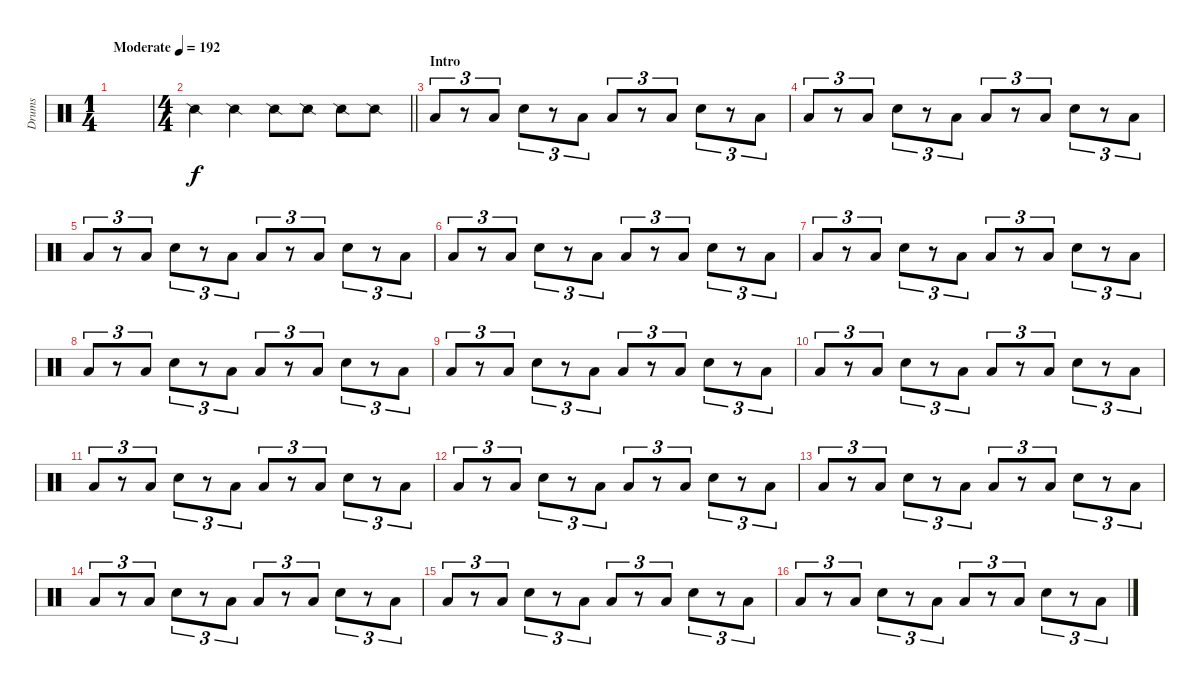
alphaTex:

\track ("Drums" "Drums") {instrument percussion}
\staff {score}
\articulation defaults
\ts (1 4)
\tempo (192 "Moderate")
\clef neutral
\ks c
|
\ts (4 4)
\barLineRight lightlight "Snare (side stick) 2".4 "Snare (side stick) 2".4 "Snare (side stick) 2".8 "Snare (side stick) 2".8 "Snare (side stick) 2".8 "Snare (side stick) 2".8
|
\section ("" "Intro")
"Low Floor Tom (hit)".8{tu (3 2)} r.8{tu (3 2)} "Low Tom (hit)".8{tu (3 2)} "Snare (hit) 2".8{tu (3 2)} r.8{tu (3 2)} "Low Tom (hit)".8{tu (3 2)} "Low Floor Tom (hit)".8{tu (3 2)} r.8{tu (3 2)} "Low Tom (hit)".8{tu (3 2)} "Snare (hit) 2".8{tu (3 2)} r.8{tu (3 2)} "Low Tom (hit)".8{tu (3 2)} |
"Low Floor Tom (hit)".8{tu (3 2)} r.8{tu (3 2)} "Low Tom (hit)".8{tu (3 2)} "Snare (hit) 2".8{tu (3 2)} r.8{tu (3 2)} "Low Tom (hit)".8{tu (3 2)} "Low Floor Tom (hit)".8{tu (3 2)} r.8{tu (3 2)} "Low Tom (hit)".8{tu (3 2)} "Snare (hit) 2".8{tu (3 2)} r.8{tu (3 2)} "Low Tom (hit)".8{tu (3 2)} |
"Low Floor Tom (hit)".8{tu (3 2)} r.8{tu (3 2)} "Low Tom (hit)".8{tu (3 2)} "Snare (hit) 2".8{tu (3 2)} r.8{tu (3 2)} "Low Tom (hit)".8{tu (3 2)} "Low Floor Tom (hit)".8{tu (3 2)} r.8{tu (3 2)} "Low Tom (hit)".8{tu (3 2)} "Snare (hit) 2".8{tu (3 2)} r.8{tu (3 2)} "Low Tom (hit)".8{tu (3 2)} |
"Low Floor Tom (hit)".8{tu (3 2)} r.8{tu (3 2)} "Low Tom (hit)".8{tu (3 2)} "Snare (hit) 2".8{tu (3 2)} r.8{tu (3 2)} "Low Tom (hit)".8{tu (3 2)} "Low Floor Tom (hit)".8{tu (3 2)} r.8{tu (3 2)} "Low Tom (hit)".8{tu (3 2)} "Snare (hit) 2".8{tu (3 2)} r.8{tu (3 2)} "Low Tom (hit)".8{tu (3 2)} |
"Low Floor Tom (hit)".8{tu (3 2)} r.8{tu (3 2)} "Low Tom (hit)".8{tu (3 2)} "Snare (hit) 2".8{tu (3 2)} r.8{tu (3 2)} "Low Tom (hit)".8{tu (3 2)} "Low Floor Tom (hit)".8{tu (3 2)} r.8{tu (3 2)} "Low Tom (hit)".8{tu (3 2)} "Snare (hit) 2".8{tu (3 2)} r.8{tu (3 2)} "Low Tom (hit)".8{tu (3 2)} |
"Low Floor Tom (hit)".8{tu (3 2)} r.8{tu (3 2)} "Low Tom (hit)".8{tu (3 2)} "Snare (hit) 2".8{tu (3 2)} r.8{tu (3 2)} "Low Tom (hit)".8{tu (3 2)} "Low Floor Tom (hit)".8{tu (3 2)} r.8{tu (3 2)} "Low Tom (hit)".8{tu (3 2)} "Snare (hit) 2".8{tu (3 2)} r.8{tu (3 2)} "Low Tom (hit)".8{tu (3 2)} |
"Low Floor Tom (hit)".8{tu (3 2)} r.8{tu (3 2)} "Low Tom (hit)".8{tu (3 2)} "Snare (hit) 2".8{tu (3 2)} r.8{tu (3 2)} "Low Tom (hit)".8{tu (3 2)} "Low Floor Tom (hit)".8{tu (3 2)} r.8{tu (3 2)} "Low Tom (hit)".8{tu (3 2)} "Snare (hit) 2".8{tu (3 2)} r.8{tu (3 2)} "Low Tom (hit)".8{tu (3 2)} |
"Low Floor Tom (hit)".8{tu (3 2)} r.8{tu (3 2)} "Low Tom (hit)".8{tu (3 2)} "Snare (hit) 2".8{tu (3 2)} r.8{tu (3 2)} "Low Tom (hit)".8{tu (3 2)} "Low Floor Tom (hit)".8{tu (3 2)} r.8{tu (3 2)} "Low Tom (hit)".8{tu (3 2)} "Snare (hit) 2".8{tu (3 2)} r.8{tu (3 2)} "Low Tom (hit)".8{tu (3 2)} |
"Low Floor Tom (hit)".8{tu (3 2)} r.8{tu (3 2)} "Low Tom (hit)".8{tu (3 2)} "Snare (hit) 2".8{tu (3 2)} r.8{tu (3 2)} "Low Tom (hit)".8{tu (3 2)} "Low Floor Tom (hit)".8{tu (3 2)} r.8{tu (3 2)} "Low Tom (hit)".8{tu (3 2)} "Snare (hit) 2".8{tu (3 2)} r.8{tu (3 2)} "Low Tom (hit)".8{tu (3 2)} |
"Low Floor Tom (hit)".8{tu (3 2)} r.8{tu (3 2)} "Low Tom (hit)".8{tu (3 2)} "Snare (hit) 2".8{tu (3 2)} r.8{tu (3 2)} "Low Tom (hit)".8{tu (3 2)} "Low Floor Tom (hit)".8{tu (3 2)} r.8{tu (3 2)} "Low Tom (hit)".8{tu (3 2)} "Snare (hit) 2".8{tu (3 2)} r.8{tu (3 2)} "Low Tom (hit)".8{tu (3 2)} |
"Low Floor Tom (hit)".8{tu (3 2)} r.8{tu (3 2)} "Low Tom (hit)".8{tu (3 2)} "Snare (hit) 2".8{tu (3 2)} r.8{tu (3 2)} "Low Tom (hit)".8{tu (3 2)} "Low Floor Tom (hit)".8{tu (3 2)} r.8{tu (3 2)} "Low Tom (hit)".8{tu (3 2)} "Snare (hit) 2".8{tu (3 2)} r.8{tu (3 2)} "Low Tom (hit)".8{tu (3 2)} |
"Low Floor Tom (hit)".8{tu (3 2)} r.8{tu (3 2)} "Low Tom (hit)".8{tu (3 2)} "Snare (hit) 2".8{tu (3 2)} r.8{tu (3 2)} "Low Tom (hit)".8{tu (3 2)} "Low Floor Tom (hit)".8{tu (3 2)} r.8{tu (3 2)} "Low Tom (hit)".8{tu (3 2)} "Snare (hit) 2".8{tu (3 2)} r.8{tu (3 2)} "Low Tom (hit)".8{tu (3 2)} |
"Low Floor Tom (hit)".8{tu (3 2)} r.8{tu (3 2)} "Low Tom (hit)".8{tu (3 2)} "Snare (hit) 2".8{tu (3 2)} r.8{tu (3 2)} "Low Tom (hit)".8{tu (3 2)} "Low Floor Tom (hit)".8{tu (3 2)} r.8{tu (3 2)} "Low Tom (hit)".8{tu (3 2)} "Snare (hit) 2".8{tu (3 2)} r.8{tu (3 2)} "Low Tom (hit)".8{tu (3 2)} |
"Low Floor Tom (hit)".8{tu (3 2)} r.8{tu (3 2)} "Low Tom (hit)".8{tu (3 2)} "Snare (hit) 2".8{tu (3 2)} r.8{tu (3 2)} "Low Tom (hit)".8{tu (3 2)} "Low Floor Tom (hit)".8{tu (3 2)} r.8{tu (3 2)} "Low Tom (hit)".8{tu (3 2)} "Snare (hit) 2".8{tu (3 2)} r.8{tu (3 2)} "Low Tom (hit)".8{tu (3 2)}
